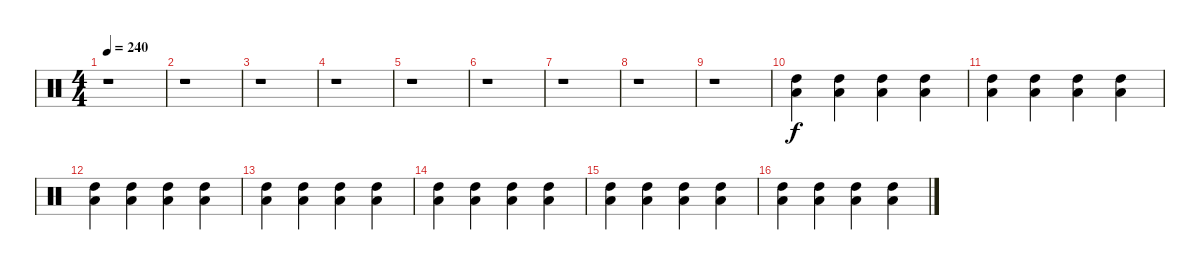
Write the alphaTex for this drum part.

\track "" {instrument percussion}
\staff {score}
\articulation defaults
\ts (4 4)
\tempo 240
\clef neutral
\ks c
r.1{dy f} |
r.1 |
r.1 |
r.1 |
r.1 |
r.1 |
r.1 |
r.1 |
r.1 |
("High Tom (hit)" "Low Floor Tom (hit)").4 ("High Tom (hit)" "Low Floor Tom (hit)").4 ("High Tom (hit)" "Low Floor Tom (hit)").4 ("High Tom (hit)" "Low Floor Tom (hit)").4 |
("High Tom (hit)" "Low Floor Tom (hit)").4 ("High Tom (hit)" "Low Floor Tom (hit)").4 ("High Tom (hit)" "Low Floor Tom (hit)").4 ("High Tom (hit)" "Low Floor Tom (hit)").4 |
("High Tom (hit)" "Low Floor Tom (hit)").4 ("High Tom (hit)" "Low Floor Tom (hit)").4 ("High Tom (hit)" "Low Floor Tom (hit)").4 ("High Tom (hit)" "Low Floor Tom (hit)").4 |
("High Tom (hit)" "Low Floor Tom (hit)").4 ("High Tom (hit)" "Low Floor Tom (hit)").4 ("High Tom (hit)" "Low Floor Tom (hit)").4 ("High Tom (hit)" "Low Floor Tom (hit)").4 |
("High Tom (hit)" "Low Floor Tom (hit)").4 ("High Tom (hit)" "Low Floor Tom (hit)").4 ("High Tom (hit)" "Low Floor Tom (hit)").4 ("High Tom (hit)" "Low Floor Tom (hit)").4 |
("High Tom (hit)" "Low Floor Tom (hit)").4 ("High Tom (hit)" "Low Floor Tom (hit)").4 ("High Tom (hit)" "Low Floor Tom (hit)").4 ("High Tom (hit)" "Low Floor Tom (hit)").4 |
("High Tom (hit)" "Low Floor Tom (hit)").4 ("High Tom (hit)" "Low Floor Tom (hit)").4 ("High Tom (hit)" "Low Floor Tom (hit)").4 ("High Tom (hit)" "Low Floor Tom (hit)").4
